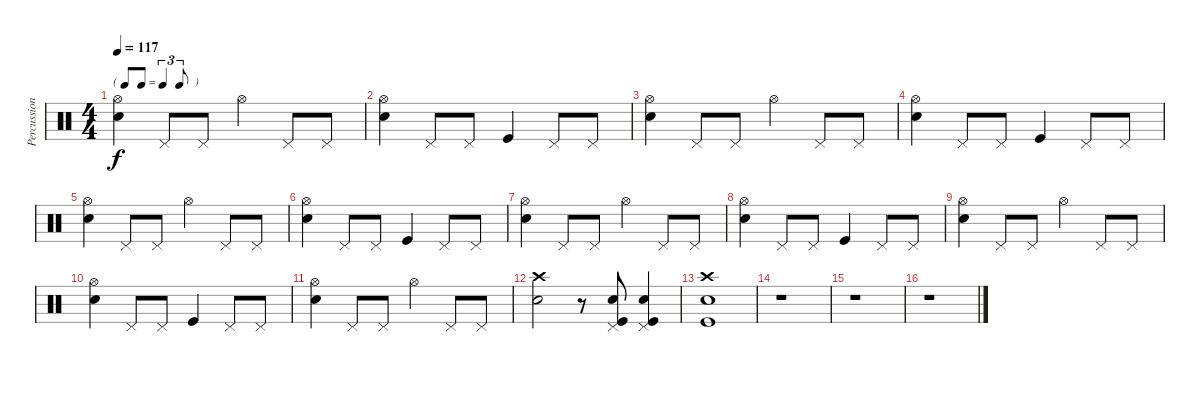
\track ("Percussions" "Percussion") {instrument percussion}
\staff {score}
\articulation defaults
\ts (4 4)
\tf triplet8th
\tempo 117
\clef neutral
\ks c
("Hi-Hat (open)" "Snare (hit) 2").4{dy f} "Pedal Hi-Hat (hit)".8 "Pedal Hi-Hat (hit)".8 "Hi-Hat (open)".4 "Pedal Hi-Hat (hit)".8 "Pedal Hi-Hat (hit)".8 |
("Hi-Hat (open)" "Snare (hit) 2").4 "Pedal Hi-Hat (hit)".8 "Pedal Hi-Hat (hit)".8 "Kick (hit)".4 "Pedal Hi-Hat (hit)".8 "Pedal Hi-Hat (hit)".8 |
("Hi-Hat (open)" "Snare (hit) 2").4 "Pedal Hi-Hat (hit)".8 "Pedal Hi-Hat (hit)".8 "Hi-Hat (open)".4 "Pedal Hi-Hat (hit)".8 "Pedal Hi-Hat (hit)".8 |
("Hi-Hat (open)" "Snare (hit) 2").4 "Pedal Hi-Hat (hit)".8 "Pedal Hi-Hat (hit)".8 "Kick (hit)".4 "Pedal Hi-Hat (hit)".8 "Pedal Hi-Hat (hit)".8 |
("Hi-Hat (open)" "Snare (hit) 2").4 "Pedal Hi-Hat (hit)".8 "Pedal Hi-Hat (hit)".8 "Hi-Hat (open)".4 "Pedal Hi-Hat (hit)".8 "Pedal Hi-Hat (hit)".8 |
("Hi-Hat (open)" "Snare (hit) 2").4 "Pedal Hi-Hat (hit)".8 "Pedal Hi-Hat (hit)".8 "Kick (hit)".4 "Pedal Hi-Hat (hit)".8 "Pedal Hi-Hat (hit)".8 |
("Hi-Hat (open)" "Snare (hit) 2").4 "Pedal Hi-Hat (hit)".8 "Pedal Hi-Hat (hit)".8 "Hi-Hat (open)".4 "Pedal Hi-Hat (hit)".8 "Pedal Hi-Hat (hit)".8 |
("Hi-Hat (open)" "Snare (hit) 2").4 "Pedal Hi-Hat (hit)".8 "Pedal Hi-Hat (hit)".8 "Kick (hit)".4 "Pedal Hi-Hat (hit)".8 "Pedal Hi-Hat (hit)".8 |
("Hi-Hat (open)" "Snare (hit) 2").4 "Pedal Hi-Hat (hit)".8 "Pedal Hi-Hat (hit)".8 "Hi-Hat (open)".4 "Pedal Hi-Hat (hit)".8 "Pedal Hi-Hat (hit)".8 |
("Hi-Hat (open)" "Snare (hit) 2").4 "Pedal Hi-Hat (hit)".8 "Pedal Hi-Hat (hit)".8 "Kick (hit)".4 "Pedal Hi-Hat (hit)".8 "Pedal Hi-Hat (hit)".8 |
("Hi-Hat (open)" "Snare (hit) 2").4 "Pedal Hi-Hat (hit)".8 "Pedal Hi-Hat (hit)".8 "Hi-Hat (open)".4 "Pedal Hi-Hat (hit)".8 "Pedal Hi-Hat (hit)".8 |
("Crash high (hit)" "Snare (hit) 2").2 r.8 ("Pedal Hi-Hat (hit)" "Snare (hit) 2" "Kick (hit)").8 ("Pedal Hi-Hat (hit)" "Snare (hit) 2" "Kick (hit)").4 |
("Crash high (hit)" "Snare (hit) 2" "Kick (hit)").1 |
r.1 |
r.1 |
r.1
